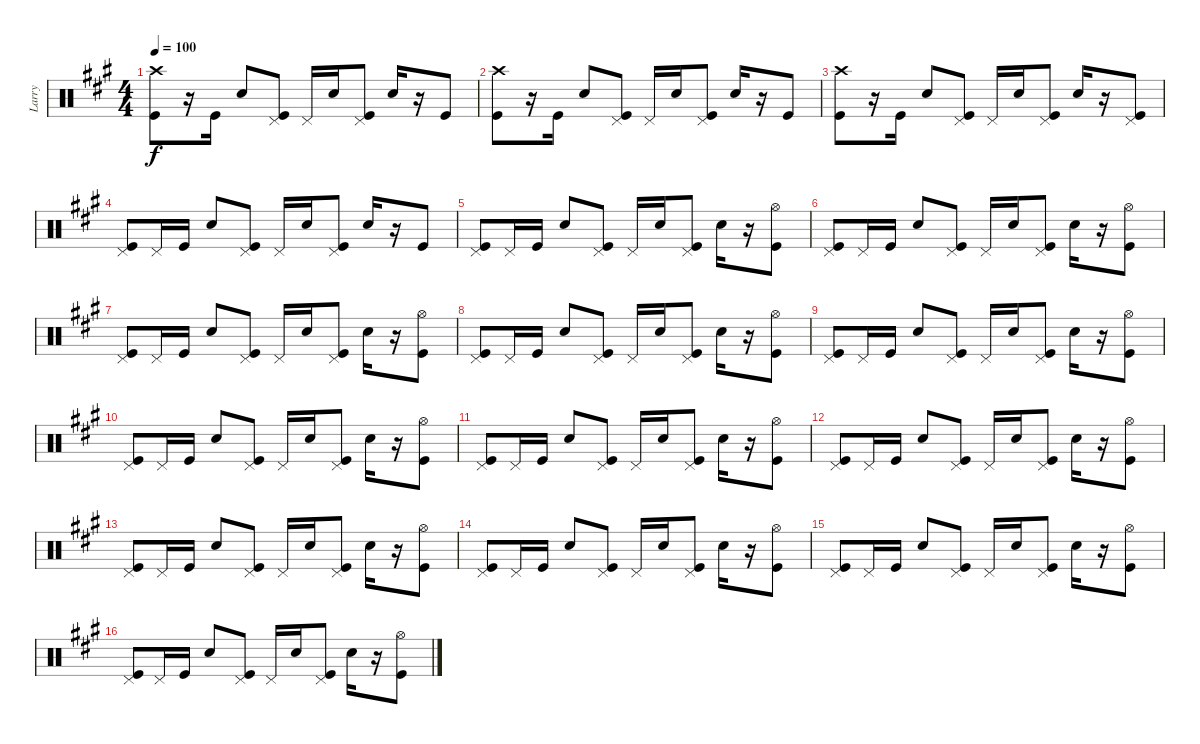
\track ("Larry" "Larry") {instrument percussion}
\staff {score}
\articulation defaults
\ts (4 4)
\tempo 100
\clef neutral
\ks f#minor
("Crash high (hit)" "Kick (hit)").8{dy f} r.16 "Kick (hit)".16 "Snare (hit) 2".8 ("Pedal Hi-Hat (hit)" "Kick (hit)").8 "Pedal Hi-Hat (hit)".16 "Snare (hit) 2".16 ("Pedal Hi-Hat (hit)" "Kick (hit)").8 "Snare (hit) 2".16 r.16 "Kick (hit)".8 |
("Crash high (hit)" "Kick (hit)").8 r.16 "Kick (hit)".16 "Snare (hit) 2".8 ("Pedal Hi-Hat (hit)" "Kick (hit)").8 "Pedal Hi-Hat (hit)".16 "Snare (hit) 2".16 ("Pedal Hi-Hat (hit)" "Kick (hit)").8 "Snare (hit) 2".16 r.16 "Kick (hit)".8 |
("Crash high (hit)" "Kick (hit)").8 r.16 "Kick (hit)".16 "Snare (hit) 2".8 ("Pedal Hi-Hat (hit)" "Kick (hit)").8 "Pedal Hi-Hat (hit)".16 "Snare (hit) 2".16 ("Pedal Hi-Hat (hit)" "Kick (hit)").8 "Snare (hit) 2".16 r.16 ("Pedal Hi-Hat (hit)" "Kick (hit)").8 |
("Pedal Hi-Hat (hit)" "Kick (hit)").8 "Pedal Hi-Hat (hit)".16 "Kick (hit)".16 "Snare (hit) 2".8 ("Pedal Hi-Hat (hit)" "Kick (hit)").8 "Pedal Hi-Hat (hit)".16 "Snare (hit) 2".16 ("Pedal Hi-Hat (hit)" "Kick (hit)").8 "Snare (hit) 2".16 r.16 "Kick (hit)".8 |
("Pedal Hi-Hat (hit)" "Kick (hit)").8 "Pedal Hi-Hat (hit)".16 "Kick (hit)".16 "Snare (hit) 2".8 ("Pedal Hi-Hat (hit)" "Kick (hit)").8 "Pedal Hi-Hat (hit)".16 "Snare (hit) 2".16 ("Pedal Hi-Hat (hit)" "Kick (hit)").8 "Snare (hit) 2".16 r.16 ("Hi-Hat (open)" "Kick (hit)").8 |
("Pedal Hi-Hat (hit)" "Kick (hit)").8 "Pedal Hi-Hat (hit)".16 "Kick (hit)".16 "Snare (hit) 2".8 ("Pedal Hi-Hat (hit)" "Kick (hit)").8 "Pedal Hi-Hat (hit)".16 "Snare (hit) 2".16 ("Pedal Hi-Hat (hit)" "Kick (hit)").8 "Snare (hit) 2".16 r.16 ("Hi-Hat (open)" "Kick (hit)").8 |
("Pedal Hi-Hat (hit)" "Kick (hit)").8 "Pedal Hi-Hat (hit)".16 "Kick (hit)".16 "Snare (hit) 2".8 ("Pedal Hi-Hat (hit)" "Kick (hit)").8 "Pedal Hi-Hat (hit)".16 "Snare (hit) 2".16 ("Pedal Hi-Hat (hit)" "Kick (hit)").8 "Snare (hit) 2".16 r.16 ("Hi-Hat (open)" "Kick (hit)").8 |
("Pedal Hi-Hat (hit)" "Kick (hit)").8 "Pedal Hi-Hat (hit)".16 "Kick (hit)".16 "Snare (hit) 2".8 ("Pedal Hi-Hat (hit)" "Kick (hit)").8 "Pedal Hi-Hat (hit)".16 "Snare (hit) 2".16 ("Pedal Hi-Hat (hit)" "Kick (hit)").8 "Snare (hit) 2".16 r.16 ("Hi-Hat (open)" "Kick (hit)").8 |
("Pedal Hi-Hat (hit)" "Kick (hit)").8 "Pedal Hi-Hat (hit)".16 "Kick (hit)".16 "Snare (hit) 2".8 ("Pedal Hi-Hat (hit)" "Kick (hit)").8 "Pedal Hi-Hat (hit)".16 "Snare (hit) 2".16 ("Pedal Hi-Hat (hit)" "Kick (hit)").8 "Snare (hit) 2".16 r.16 ("Hi-Hat (open)" "Kick (hit)").8 |
("Pedal Hi-Hat (hit)" "Kick (hit)").8 "Pedal Hi-Hat (hit)".16 "Kick (hit)".16 "Snare (hit) 2".8 ("Pedal Hi-Hat (hit)" "Kick (hit)").8 "Pedal Hi-Hat (hit)".16 "Snare (hit) 2".16 ("Pedal Hi-Hat (hit)" "Kick (hit)").8 "Snare (hit) 2".16 r.16 ("Hi-Hat (open)" "Kick (hit)").8 |
("Pedal Hi-Hat (hit)" "Kick (hit)").8 "Pedal Hi-Hat (hit)".16 "Kick (hit)".16 "Snare (hit) 2".8 ("Pedal Hi-Hat (hit)" "Kick (hit)").8 "Pedal Hi-Hat (hit)".16 "Snare (hit) 2".16 ("Pedal Hi-Hat (hit)" "Kick (hit)").8 "Snare (hit) 2".16 r.16 ("Hi-Hat (open)" "Kick (hit)").8 |
("Pedal Hi-Hat (hit)" "Kick (hit)").8 "Pedal Hi-Hat (hit)".16 "Kick (hit)".16 "Snare (hit) 2".8 ("Pedal Hi-Hat (hit)" "Kick (hit)").8 "Pedal Hi-Hat (hit)".16 "Snare (hit) 2".16 ("Pedal Hi-Hat (hit)" "Kick (hit)").8 "Snare (hit) 2".16 r.16 ("Hi-Hat (open)" "Kick (hit)").8 |
("Pedal Hi-Hat (hit)" "Kick (hit)").8 "Pedal Hi-Hat (hit)".16 "Kick (hit)".16 "Snare (hit) 2".8 ("Pedal Hi-Hat (hit)" "Kick (hit)").8 "Pedal Hi-Hat (hit)".16 "Snare (hit) 2".16 ("Pedal Hi-Hat (hit)" "Kick (hit)").8 "Snare (hit) 2".16 r.16 ("Hi-Hat (open)" "Kick (hit)").8 |
("Pedal Hi-Hat (hit)" "Kick (hit)").8 "Pedal Hi-Hat (hit)".16 "Kick (hit)".16 "Snare (hit) 2".8 ("Pedal Hi-Hat (hit)" "Kick (hit)").8 "Pedal Hi-Hat (hit)".16 "Snare (hit) 2".16 ("Pedal Hi-Hat (hit)" "Kick (hit)").8 "Snare (hit) 2".16 r.16 ("Hi-Hat (open)" "Kick (hit)").8 |
("Pedal Hi-Hat (hit)" "Kick (hit)").8 "Pedal Hi-Hat (hit)".16 "Kick (hit)".16 "Snare (hit) 2".8 ("Pedal Hi-Hat (hit)" "Kick (hit)").8 "Pedal Hi-Hat (hit)".16 "Snare (hit) 2".16 ("Pedal Hi-Hat (hit)" "Kick (hit)").8 "Snare (hit) 2".16 r.16 ("Hi-Hat (open)" "Kick (hit)").8 |
("Pedal Hi-Hat (hit)" "Kick (hit)").8 "Pedal Hi-Hat (hit)".16 "Kick (hit)".16 "Snare (hit) 2".8 ("Pedal Hi-Hat (hit)" "Kick (hit)").8 "Pedal Hi-Hat (hit)".16 "Snare (hit) 2".16 ("Pedal Hi-Hat (hit)" "Kick (hit)").8 "Snare (hit) 2".16 r.16 ("Hi-Hat (open)" "Kick (hit)").8
